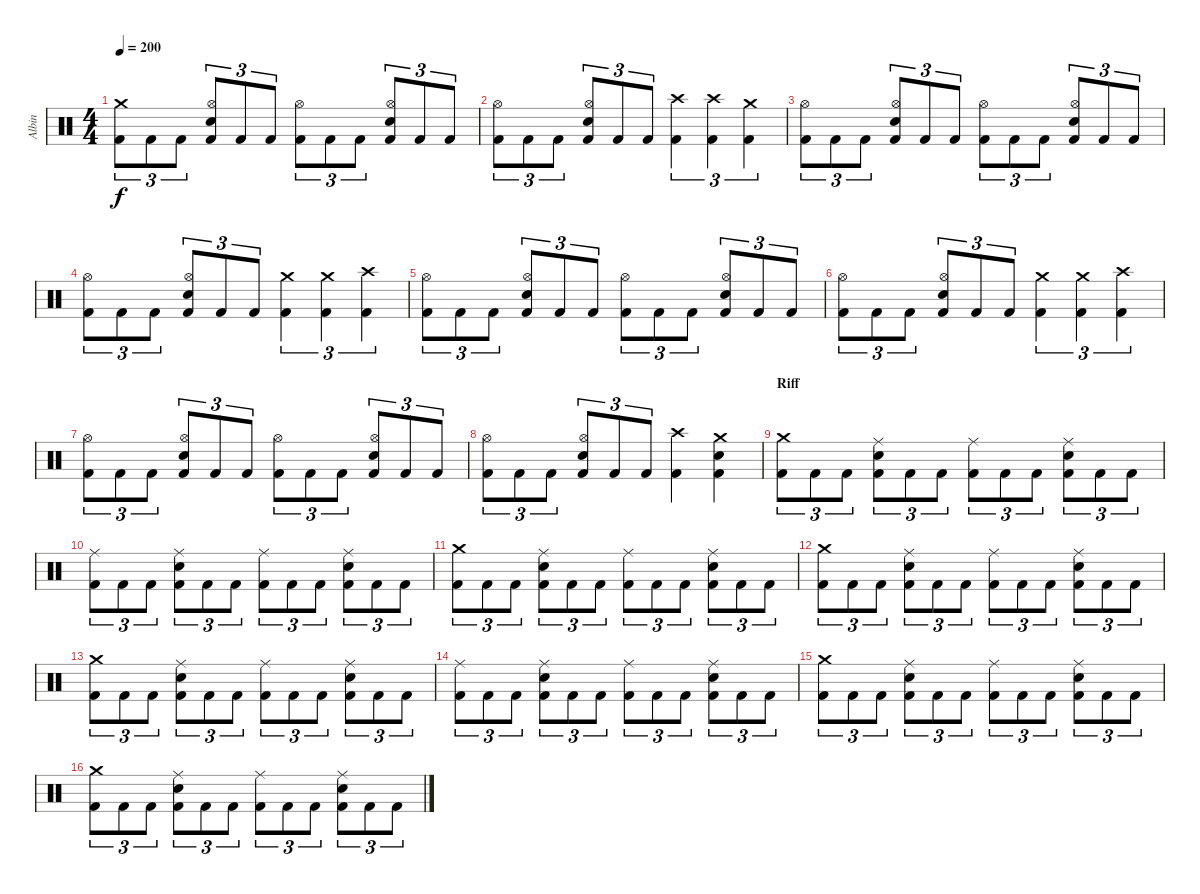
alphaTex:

\track ("Albin" "Albin") {instrument percussion}
\staff {score}
\articulation defaults
\ts (4 4)
\tempo 200
\clef neutral
\ks c
("Crash medium (hit)" "Kick (hit) 2").8{tu (3 2) dy f} "Kick (hit) 2".8{tu (3 2)} "Kick (hit) 2".8{tu (3 2)} ("Hi-Hat (open)" "Electric Snare (hit)" "Kick (hit) 2").8{tu (3 2)} "Kick (hit) 2".8{tu (3 2)} "Kick (hit) 2".8{tu (3 2)} ("Hi-Hat (open)" "Kick (hit) 2").8{tu (3 2)} "Kick (hit) 2".8{tu (3 2)} "Kick (hit) 2".8{tu (3 2)} ("Hi-Hat (open)" "Electric Snare (hit)" "Kick (hit) 2").8{tu (3 2)} "Kick (hit) 2".8{tu (3 2)} "Kick (hit) 2".8{tu (3 2)} |
("Hi-Hat (open)" "Kick (hit) 2").8{tu (3 2)} "Kick (hit) 2".8{tu (3 2)} "Kick (hit) 2".8{tu (3 2)} ("Hi-Hat (open)" "Electric Snare (hit)" "Kick (hit) 2").8{tu (3 2)} "Kick (hit) 2".8{tu (3 2)} "Kick (hit) 2".8{tu (3 2)} ("Crash high (hit)" "Kick (hit) 2").4{tu (3 2)} ("Crash high (hit)" "Kick (hit) 2").4{tu (3 2)} ("Crash medium (hit)" "Kick (hit) 2").4{tu (3 2)} |
("Hi-Hat (open)" "Kick (hit) 2").8{tu (3 2)} "Kick (hit) 2".8{tu (3 2)} "Kick (hit) 2".8{tu (3 2)} ("Hi-Hat (open)" "Electric Snare (hit)" "Kick (hit) 2").8{tu (3 2)} "Kick (hit) 2".8{tu (3 2)} "Kick (hit) 2".8{tu (3 2)} ("Hi-Hat (open)" "Kick (hit) 2").8{tu (3 2)} "Kick (hit) 2".8{tu (3 2)} "Kick (hit) 2".8{tu (3 2)} ("Hi-Hat (open)" "Electric Snare (hit)" "Kick (hit) 2").8{tu (3 2)} "Kick (hit) 2".8{tu (3 2)} "Kick (hit) 2".8{tu (3 2)} |
("Hi-Hat (open)" "Kick (hit) 2").8{tu (3 2)} "Kick (hit) 2".8{tu (3 2)} "Kick (hit) 2".8{tu (3 2)} ("Hi-Hat (open)" "Electric Snare (hit)" "Kick (hit) 2").8{tu (3 2)} "Kick (hit) 2".8{tu (3 2)} "Kick (hit) 2".8{tu (3 2)} ("Crash medium (hit)" "Kick (hit) 2").4{tu (3 2)} ("Crash medium (hit)" "Kick (hit) 2").4{tu (3 2)} ("Crash high (hit)" "Kick (hit) 2").4{tu (3 2)} |
("Hi-Hat (open)" "Kick (hit) 2").8{tu (3 2)} "Kick (hit) 2".8{tu (3 2)} "Kick (hit) 2".8{tu (3 2)} ("Hi-Hat (open)" "Electric Snare (hit)" "Kick (hit) 2").8{tu (3 2)} "Kick (hit) 2".8{tu (3 2)} "Kick (hit) 2".8{tu (3 2)} ("Hi-Hat (open)" "Kick (hit) 2").8{tu (3 2)} "Kick (hit) 2".8{tu (3 2)} "Kick (hit) 2".8{tu (3 2)} ("Hi-Hat (open)" "Electric Snare (hit)" "Kick (hit) 2").8{tu (3 2)} "Kick (hit) 2".8{tu (3 2)} "Kick (hit) 2".8{tu (3 2)} |
("Hi-Hat (open)" "Kick (hit) 2").8{tu (3 2)} "Kick (hit) 2".8{tu (3 2)} "Kick (hit) 2".8{tu (3 2)} ("Hi-Hat (open)" "Electric Snare (hit)" "Kick (hit) 2").8{tu (3 2)} "Kick (hit) 2".8{tu (3 2)} "Kick (hit) 2".8{tu (3 2)} ("Crash medium (hit)" "Kick (hit) 2").4{tu (3 2)} ("Crash medium (hit)" "Kick (hit) 2").4{tu (3 2)} ("Crash high (hit)" "Kick (hit) 2").4{tu (3 2)} |
("Hi-Hat (open)" "Kick (hit) 2").8{tu (3 2)} "Kick (hit) 2".8{tu (3 2)} "Kick (hit) 2".8{tu (3 2)} ("Hi-Hat (open)" "Electric Snare (hit)" "Kick (hit) 2").8{tu (3 2)} "Kick (hit) 2".8{tu (3 2)} "Kick (hit) 2".8{tu (3 2)} ("Hi-Hat (open)" "Kick (hit) 2").8{tu (3 2)} "Kick (hit) 2".8{tu (3 2)} "Kick (hit) 2".8{tu (3 2)} ("Hi-Hat (open)" "Electric Snare (hit)" "Kick (hit) 2").8{tu (3 2)} "Kick (hit) 2".8{tu (3 2)} "Kick (hit) 2".8{tu (3 2)} |
("Hi-Hat (open)" "Kick (hit) 2").8{tu (3 2)} "Kick (hit) 2".8{tu (3 2)} "Kick (hit) 2".8{tu (3 2)} ("Hi-Hat (open)" "Electric Snare (hit)" "Kick (hit) 2").8{tu (3 2)} "Kick (hit) 2".8{tu (3 2)} "Kick (hit) 2".8{tu (3 2)} ("Crash high (hit)" "Kick (hit) 2").4 ("Crash medium (hit)" "Electric Snare (hit)" "Kick (hit) 2").4 |
\section ("" "Riff")
("Crash medium (hit)" "Kick (hit) 2").8{tu (3 2)} "Kick (hit) 2".8{tu (3 2)} "Kick (hit) 2".8{tu (3 2)} ("Ride (middle)" "Electric Snare (hit)" "Kick (hit) 2").8{tu (3 2)} "Kick (hit) 2".8{tu (3 2)} "Kick (hit) 2".8{tu (3 2)} ("Ride (middle)" "Kick (hit) 2").8{tu (3 2)} "Kick (hit) 2".8{tu (3 2)} "Kick (hit) 2".8{tu (3 2)} ("Ride (middle)" "Electric Snare (hit)" "Kick (hit) 2").8{tu (3 2)} "Kick (hit) 2".8{tu (3 2)} "Kick (hit) 2".8{tu (3 2)} |
("Ride (middle)" "Kick (hit) 2").8{tu (3 2)} "Kick (hit) 2".8{tu (3 2)} "Kick (hit) 2".8{tu (3 2)} ("Ride (middle)" "Electric Snare (hit)" "Kick (hit) 2").8{tu (3 2)} "Kick (hit) 2".8{tu (3 2)} "Kick (hit) 2".8{tu (3 2)} ("Ride (middle)" "Kick (hit) 2").8{tu (3 2)} "Kick (hit) 2".8{tu (3 2)} "Kick (hit) 2".8{tu (3 2)} ("Ride (middle)" "Electric Snare (hit)" "Kick (hit) 2").8{tu (3 2)} "Kick (hit) 2".8{tu (3 2)} "Kick (hit) 2".8{tu (3 2)} |
("Crash medium (hit)" "Kick (hit) 2").8{tu (3 2)} "Kick (hit) 2".8{tu (3 2)} "Kick (hit) 2".8{tu (3 2)} ("Ride (middle)" "Electric Snare (hit)" "Kick (hit) 2").8{tu (3 2)} "Kick (hit) 2".8{tu (3 2)} "Kick (hit) 2".8{tu (3 2)} ("Ride (middle)" "Kick (hit) 2").8{tu (3 2)} "Kick (hit) 2".8{tu (3 2)} "Kick (hit) 2".8{tu (3 2)} ("Ride (middle)" "Electric Snare (hit)" "Kick (hit) 2").8{tu (3 2)} "Kick (hit) 2".8{tu (3 2)} "Kick (hit) 2".8{tu (3 2)} |
("Crash medium (hit)" "Kick (hit) 2").8{tu (3 2)} "Kick (hit) 2".8{tu (3 2)} "Kick (hit) 2".8{tu (3 2)} ("Ride (middle)" "Electric Snare (hit)" "Kick (hit) 2").8{tu (3 2)} "Kick (hit) 2".8{tu (3 2)} "Kick (hit) 2".8{tu (3 2)} ("Ride (middle)" "Kick (hit) 2").8{tu (3 2)} "Kick (hit) 2".8{tu (3 2)} "Kick (hit) 2".8{tu (3 2)} ("Ride (middle)" "Electric Snare (hit)" "Kick (hit) 2").8{tu (3 2)} "Kick (hit) 2".8{tu (3 2)} "Kick (hit) 2".8{tu (3 2)} |
("Crash medium (hit)" "Kick (hit) 2").8{tu (3 2)} "Kick (hit) 2".8{tu (3 2)} "Kick (hit) 2".8{tu (3 2)} ("Ride (middle)" "Electric Snare (hit)" "Kick (hit) 2").8{tu (3 2)} "Kick (hit) 2".8{tu (3 2)} "Kick (hit) 2".8{tu (3 2)} ("Ride (middle)" "Kick (hit) 2").8{tu (3 2)} "Kick (hit) 2".8{tu (3 2)} "Kick (hit) 2".8{tu (3 2)} ("Ride (middle)" "Electric Snare (hit)" "Kick (hit) 2").8{tu (3 2)} "Kick (hit) 2".8{tu (3 2)} "Kick (hit) 2".8{tu (3 2)} |
("Ride (middle)" "Kick (hit) 2").8{tu (3 2)} "Kick (hit) 2".8{tu (3 2)} "Kick (hit) 2".8{tu (3 2)} ("Ride (middle)" "Electric Snare (hit)" "Kick (hit) 2").8{tu (3 2)} "Kick (hit) 2".8{tu (3 2)} "Kick (hit) 2".8{tu (3 2)} ("Ride (middle)" "Kick (hit) 2").8{tu (3 2)} "Kick (hit) 2".8{tu (3 2)} "Kick (hit) 2".8{tu (3 2)} ("Ride (middle)" "Electric Snare (hit)" "Kick (hit) 2").8{tu (3 2)} "Kick (hit) 2".8{tu (3 2)} "Kick (hit) 2".8{tu (3 2)} |
("Crash medium (hit)" "Kick (hit) 2").8{tu (3 2)} "Kick (hit) 2".8{tu (3 2)} "Kick (hit) 2".8{tu (3 2)} ("Ride (middle)" "Electric Snare (hit)" "Kick (hit) 2").8{tu (3 2)} "Kick (hit) 2".8{tu (3 2)} "Kick (hit) 2".8{tu (3 2)} ("Ride (middle)" "Kick (hit) 2").8{tu (3 2)} "Kick (hit) 2".8{tu (3 2)} "Kick (hit) 2".8{tu (3 2)} ("Ride (middle)" "Electric Snare (hit)" "Kick (hit) 2").8{tu (3 2)} "Kick (hit) 2".8{tu (3 2)} "Kick (hit) 2".8{tu (3 2)} |
("Crash medium (hit)" "Kick (hit) 2").8{tu (3 2)} "Kick (hit) 2".8{tu (3 2)} "Kick (hit) 2".8{tu (3 2)} ("Ride (middle)" "Electric Snare (hit)" "Kick (hit) 2").8{tu (3 2)} "Kick (hit) 2".8{tu (3 2)} "Kick (hit) 2".8{tu (3 2)} ("Ride (middle)" "Kick (hit) 2").8{tu (3 2)} "Kick (hit) 2".8{tu (3 2)} "Kick (hit) 2".8{tu (3 2)} ("Ride (middle)" "Electric Snare (hit)" "Kick (hit) 2").8{tu (3 2)} "Kick (hit) 2".8{tu (3 2)} "Kick (hit) 2".8{tu (3 2)}
